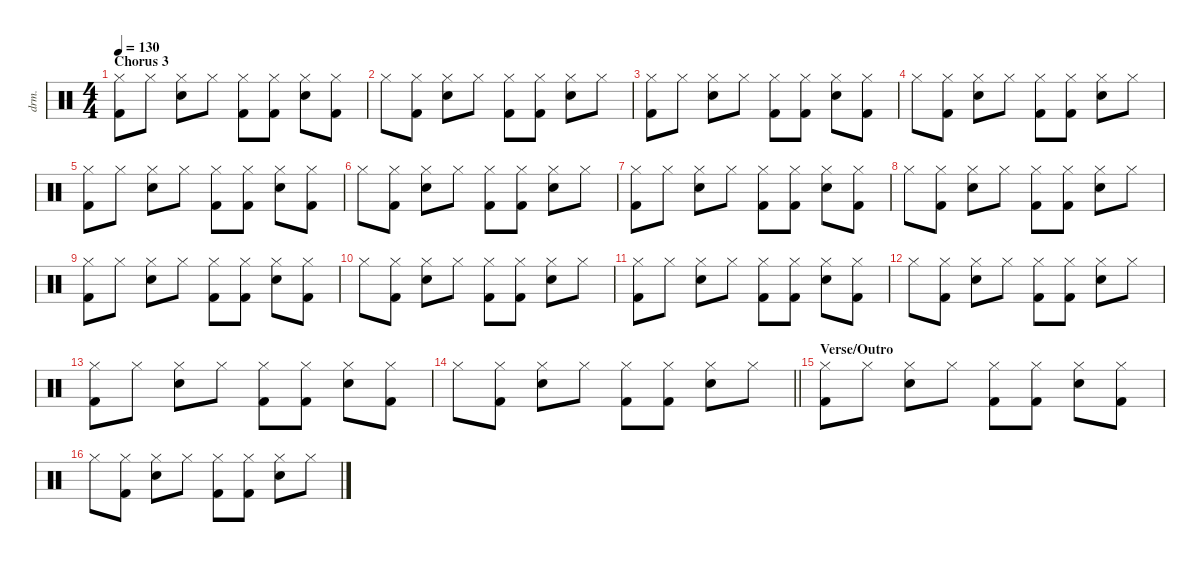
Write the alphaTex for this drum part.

\defaultSystemsLayout 4
\hideDynamics
\bracketExtendMode nobrackets
\otherSystemsTrackNameOrientation horizontal
\track ("Jimmy" "drm.") {instrument percussion}
\staff {score}
\articulation defaults
\ts (4 4)
\section ("" "Chorus 3")
\tempo 130
\clef neutral
\ks c
("Hi-Hat (closed)" "Kick (hit) 2").8{dy f beam Down} "Hi-Hat (closed)".8{beam Down} ("Hi-Hat (closed)" "Snare (hit) 2").8{beam Down} "Hi-Hat (closed)".8{beam Down} ("Hi-Hat (closed)" "Kick (hit) 2").8{beam Down} ("Hi-Hat (closed)" "Kick (hit) 2").8{beam Down} ("Hi-Hat (closed)" "Snare (hit) 2").8{beam Down} ("Hi-Hat (closed)" "Kick (hit) 2").8{beam Down} |
"Hi-Hat (closed)".8{beam Down} ("Hi-Hat (closed)" "Kick (hit) 2").8{beam Down} ("Hi-Hat (closed)" "Snare (hit) 2").8{beam Down} "Hi-Hat (closed)".8{beam Down} ("Hi-Hat (closed)" "Kick (hit) 2").8{beam Down} ("Hi-Hat (closed)" "Kick (hit) 2").8{beam Down} ("Hi-Hat (closed)" "Snare (hit) 2").8{beam Down} "Hi-Hat (closed)".8{beam Down} |
("Hi-Hat (closed)" "Kick (hit) 2").8{beam Down} "Hi-Hat (closed)".8{beam Down} ("Hi-Hat (closed)" "Snare (hit) 2").8{beam Down} "Hi-Hat (closed)".8{beam Down} ("Hi-Hat (closed)" "Kick (hit) 2").8{beam Down} ("Hi-Hat (closed)" "Kick (hit) 2").8{beam Down} ("Hi-Hat (closed)" "Snare (hit) 2").8{beam Down} ("Hi-Hat (closed)" "Kick (hit) 2").8{beam Down} |
"Hi-Hat (closed)".8{beam Down} ("Hi-Hat (closed)" "Kick (hit) 2").8{beam Down} ("Hi-Hat (closed)" "Snare (hit) 2").8{beam Down} "Hi-Hat (closed)".8{beam Down} ("Hi-Hat (closed)" "Kick (hit) 2").8{beam Down} ("Hi-Hat (closed)" "Kick (hit) 2").8{beam Down} ("Hi-Hat (closed)" "Snare (hit) 2").8{beam Down} "Hi-Hat (closed)".8{beam Down} |
("Hi-Hat (closed)" "Kick (hit) 2").8{beam Down} "Hi-Hat (closed)".8{beam Down} ("Hi-Hat (closed)" "Snare (hit) 2").8{beam Down} "Hi-Hat (closed)".8{beam Down} ("Hi-Hat (closed)" "Kick (hit) 2").8{beam Down} ("Hi-Hat (closed)" "Kick (hit) 2").8{beam Down} ("Hi-Hat (closed)" "Snare (hit) 2").8{beam Down} ("Hi-Hat (closed)" "Kick (hit) 2").8{beam Down} |
"Hi-Hat (closed)".8{beam Down} ("Hi-Hat (closed)" "Kick (hit) 2").8{beam Down} ("Hi-Hat (closed)" "Snare (hit) 2").8{beam Down} "Hi-Hat (closed)".8{beam Down} ("Hi-Hat (closed)" "Kick (hit) 2").8{beam Down} ("Hi-Hat (closed)" "Kick (hit) 2").8{beam Down} ("Hi-Hat (closed)" "Snare (hit) 2").8{beam Down} "Hi-Hat (closed)".8{beam Down} |
("Hi-Hat (closed)" "Kick (hit) 2").8{beam Down} "Hi-Hat (closed)".8{beam Down} ("Hi-Hat (closed)" "Snare (hit) 2").8{beam Down} "Hi-Hat (closed)".8{beam Down} ("Hi-Hat (closed)" "Kick (hit) 2").8{beam Down} ("Hi-Hat (closed)" "Kick (hit) 2").8{beam Down} ("Hi-Hat (closed)" "Snare (hit) 2").8{beam Down} ("Hi-Hat (closed)" "Kick (hit) 2").8{beam Down} |
"Hi-Hat (closed)".8{beam Down} ("Hi-Hat (closed)" "Kick (hit) 2").8{beam Down} ("Hi-Hat (closed)" "Snare (hit) 2").8{beam Down} "Hi-Hat (closed)".8{beam Down} ("Hi-Hat (closed)" "Kick (hit) 2").8{beam Down} ("Hi-Hat (closed)" "Kick (hit) 2").8{beam Down} ("Hi-Hat (closed)" "Snare (hit) 2").8{beam Down} "Hi-Hat (closed)".8{beam Down} |
("Hi-Hat (closed)" "Kick (hit) 2").8{beam Down} "Hi-Hat (closed)".8{beam Down} ("Hi-Hat (closed)" "Snare (hit) 2").8{beam Down} "Hi-Hat (closed)".8{beam Down} ("Hi-Hat (closed)" "Kick (hit) 2").8{beam Down} ("Hi-Hat (closed)" "Kick (hit) 2").8{beam Down} ("Hi-Hat (closed)" "Snare (hit) 2").8{beam Down} ("Hi-Hat (closed)" "Kick (hit) 2").8{beam Down} |
"Hi-Hat (closed)".8{beam Down} ("Hi-Hat (closed)" "Kick (hit) 2").8{beam Down} ("Hi-Hat (closed)" "Snare (hit) 2").8{beam Down} "Hi-Hat (closed)".8{beam Down} ("Hi-Hat (closed)" "Kick (hit) 2").8{beam Down} ("Hi-Hat (closed)" "Kick (hit) 2").8{beam Down} ("Hi-Hat (closed)" "Snare (hit) 2").8{beam Down} "Hi-Hat (closed)".8{beam Down} |
("Hi-Hat (closed)" "Kick (hit) 2").8{beam Down} "Hi-Hat (closed)".8{beam Down} ("Hi-Hat (closed)" "Snare (hit) 2").8{beam Down} "Hi-Hat (closed)".8{beam Down} ("Hi-Hat (closed)" "Kick (hit) 2").8{beam Down} ("Hi-Hat (closed)" "Kick (hit) 2").8{beam Down} ("Hi-Hat (closed)" "Snare (hit) 2").8{beam Down} ("Hi-Hat (closed)" "Kick (hit) 2").8{beam Down} |
"Hi-Hat (closed)".8{beam Down} ("Hi-Hat (closed)" "Kick (hit) 2").8{beam Down} ("Hi-Hat (closed)" "Snare (hit) 2").8{beam Down} "Hi-Hat (closed)".8{beam Down} ("Hi-Hat (closed)" "Kick (hit) 2").8{beam Down} ("Hi-Hat (closed)" "Kick (hit) 2").8{beam Down} ("Hi-Hat (closed)" "Snare (hit) 2").8{beam Down} "Hi-Hat (closed)".8{beam Down} |
("Hi-Hat (closed)" "Kick (hit) 2").8{beam Down} "Hi-Hat (closed)".8{beam Down} ("Hi-Hat (closed)" "Snare (hit) 2").8{beam Down} "Hi-Hat (closed)".8{beam Down} ("Hi-Hat (closed)" "Kick (hit) 2").8{beam Down} ("Hi-Hat (closed)" "Kick (hit) 2").8{beam Down} ("Hi-Hat (closed)" "Snare (hit) 2").8{beam Down} ("Hi-Hat (closed)" "Kick (hit) 2").8{beam Down} |
\barLineRight lightlight "Hi-Hat (closed)".8{beam Down}
("Hi-Hat (closed)" "Kick (hit) 2").8{beam Down} ("Hi-Hat (closed)" "Snare (hit) 2").8{beam Down} "Hi-Hat (closed)".8{beam Down} ("Hi-Hat (closed)" "Kick (hit) 2").8{beam Down} ("Hi-Hat (closed)" "Kick (hit) 2").8{beam Down} ("Hi-Hat (closed)" "Snare (hit) 2").8{beam Down} "Hi-Hat (closed)".8{beam Down} |
\section ("" "Verse/Outro")
("Hi-Hat (closed)" "Kick (hit) 2").8{beam Down} "Hi-Hat (closed)".8{beam Down} ("Hi-Hat (closed)" "Snare (hit) 2").8{beam Down} "Hi-Hat (closed)".8{beam Down} ("Hi-Hat (closed)" "Kick (hit) 2").8{beam Down} ("Hi-Hat (closed)" "Kick (hit) 2").8{beam Down} ("Hi-Hat (closed)" "Snare (hit) 2").8{beam Down} ("Hi-Hat (closed)" "Kick (hit) 2").8{beam Down} |
"Hi-Hat (closed)".8{beam Down} ("Hi-Hat (closed)" "Kick (hit) 2").8{beam Down} ("Hi-Hat (closed)" "Snare (hit) 2").8{beam Down} "Hi-Hat (closed)".8{beam Down} ("Hi-Hat (closed)" "Kick (hit) 2").8{beam Down} ("Hi-Hat (closed)" "Kick (hit) 2").8{beam Down} ("Hi-Hat (closed)" "Snare (hit) 2").8{beam Down} "Hi-Hat (closed)".8{beam Down}
